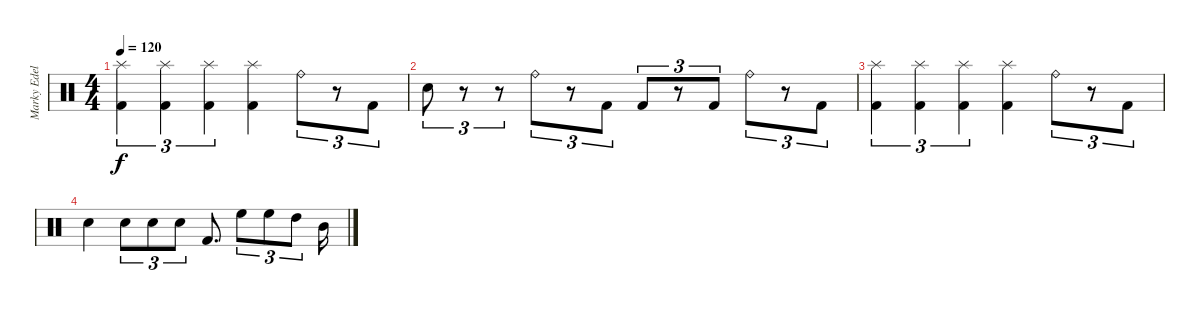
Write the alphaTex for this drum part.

\track ("Marky Edelmann" "Marky Edel") {instrument percussion}
\staff {score}
\articulation defaults
\ts (4 4)
\tempo 120
\clef neutral
\ks c
("Splash (hit)" "Kick (hit) 2").4{tu (3 2) dy f} ("Splash (hit)" "Kick (hit) 2").4{tu (3 2)} ("Splash (hit)" "Kick (hit) 2").4{tu (3 2)} ("Splash (hit)" "Kick (hit) 2").4 "Ride (bell)".8{tu (3 2)} r.8{tu (3 2)} "Kick (hit) 2".8{tu (3 2)} |
"Snare (hit) 2".8{tu (3 2)} r.8{tu (3 2)} r.8{tu (3 2)} "Ride (bell)".8{tu (3 2)} r.8{tu (3 2)} "Kick (hit) 2".8{tu (3 2)} "Kick (hit) 2".8{tu (3 2)} r.8{tu (3 2)} "Kick (hit) 2".8{tu (3 2)} "Ride (bell)".8{tu (3 2)} r.8{tu (3 2)} "Kick (hit) 2".8{tu (3 2)} |
("Splash (hit)" "Kick (hit) 2").4{tu (3 2)} ("Splash (hit)" "Kick (hit) 2").4{tu (3 2)} ("Splash (hit)" "Kick (hit) 2").4{tu (3 2)} ("Splash (hit)" "Kick (hit) 2").4 "Ride (bell)".8{tu (3 2)} r.8{tu (3 2)} "Kick (hit) 2".8{tu (3 2)} |
"Snare (hit) 2".4 "Snare (hit) 2".8{tu (3 2)} "Snare (hit) 2".8{tu (3 2)} "Snare (hit) 2".8{tu (3 2)} "Kick (hit) 2".8{d} "High Floor Tom (hit)".8{tu (3 2)} "High Floor Tom (hit)".8{tu (3 2)} "High Tom (hit)".8{tu (3 2)} "Mid Tom (hit)".16
